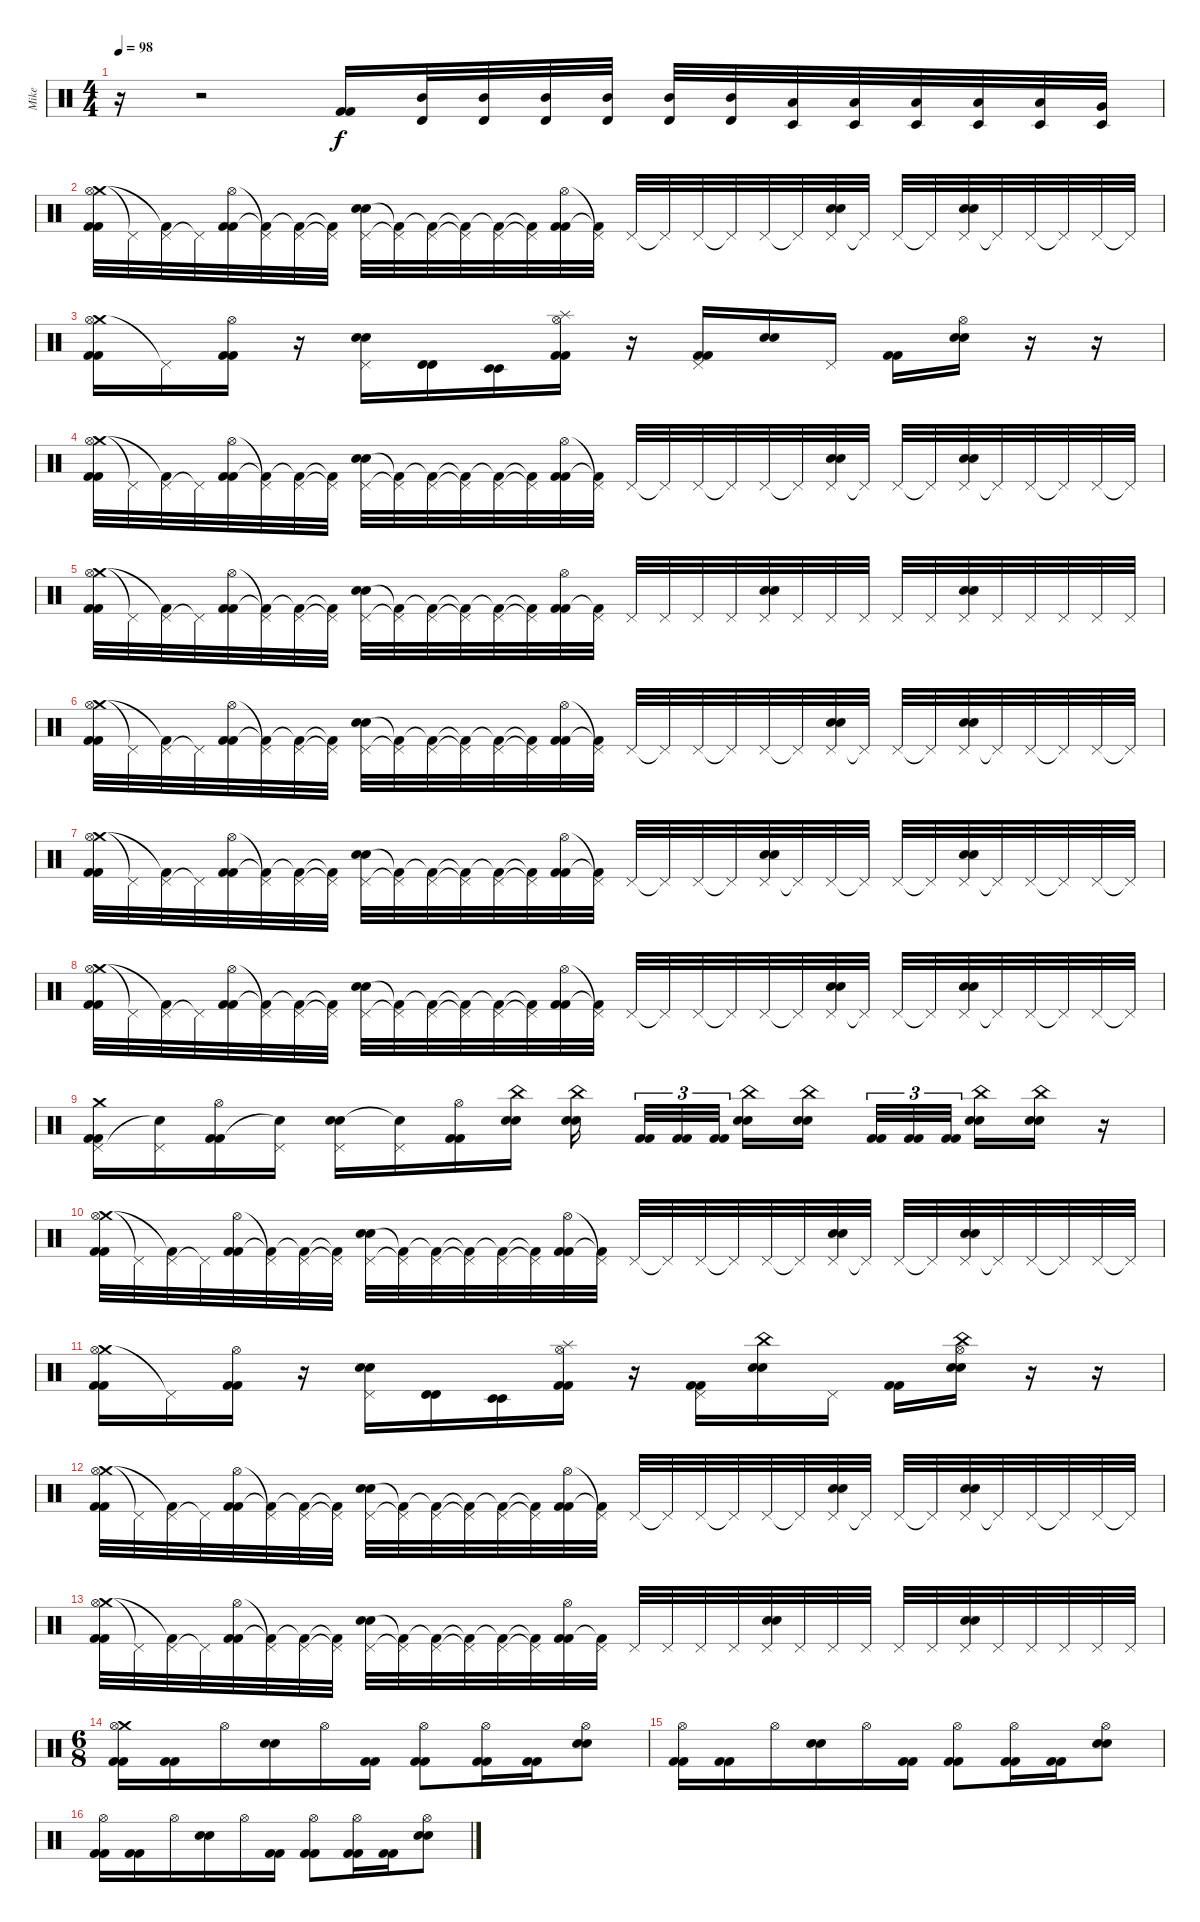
\track ("Mike" "Mike") {instrument percussion}
\staff {score}
\articulation defaults
\ts (4 4)
\tempo 98
\clef neutral
\ks c
r.16{dy f} r.2 ("Kick (hit) 2" "Kick (hit) 2").16 ("Mid Tom (hit)" "Timbale high (hit)").32 ("Mid Tom (hit)" "Timbale high (hit)").32 ("Mid Tom (hit)" "Timbale high (hit)").32 ("Mid Tom (hit)" "Timbale high (hit)").32 ("Mid Tom (hit)" "Timbale high (hit)").32 ("Mid Tom (hit)" "Timbale high (hit)").32 ("Low Tom (hit)" "Timbale low (hit)").32 ("Low Tom (hit)" "Timbale low (hit)").32 ("Low Tom (hit)" "Timbale low (hit)").32 ("Low Tom (hit)" "Timbale low (hit)").32 ("Low Tom (hit)" "Timbale low (hit)").32 ("Very Low Tom (hit)" "Timbale low (hit)").32 |
("Crash medium (hit)" "Hi-Hat (open)" "Kick (hit) 2" "Kick (hit) 2").32 "Pedal Hi-Hat (hit)"{t}.32 ("Pedal Hi-Hat (hit)" "Kick (hit) 2"{t}).32 "Pedal Hi-Hat (hit)"{t}.32 ("Hi-Hat (open)" "Kick (hit) 2" "Kick (hit) 2").32 ("Pedal Hi-Hat (hit)"{t} "Kick (hit) 2"{t}).32 ("Pedal Hi-Hat (hit)" "Kick (hit) 2"{t}).32 ("Pedal Hi-Hat (hit)"{t} "Kick (hit) 2"{t}).32 ("Pedal Hi-Hat (hit)" "Electric Snare (hit)" "Electric Snare (hit)").32 ("Pedal Hi-Hat (hit)"{t} "Kick (hit) 2"{t}).32 ("Pedal Hi-Hat (hit)" "Kick (hit) 2"{t}).32 ("Pedal Hi-Hat (hit)"{t} "Kick (hit) 2"{t}).32 ("Pedal Hi-Hat (hit)" "Kick (hit) 2"{t}).32 ("Pedal Hi-Hat (hit)"{t} "Kick (hit) 2"{t}).32 ("Hi-Hat (open)" "Kick (hit) 2" "Kick (hit) 2").32 ("Pedal Hi-Hat (hit)"{t} "Kick (hit) 2"{t}).32 "Pedal Hi-Hat (hit)".32 "Pedal Hi-Hat (hit)"{t}.32 "Pedal Hi-Hat (hit)".32 "Pedal Hi-Hat (hit)"{t}.32 "Pedal Hi-Hat (hit)".32 "Pedal Hi-Hat (hit)"{t}.32 ("Pedal Hi-Hat (hit)" "Electric Snare (hit)" "Electric Snare (hit)").32 "Pedal Hi-Hat (hit)"{t}.32 "Pedal Hi-Hat (hit)".32 "Pedal Hi-Hat (hit)"{t}.32 ("Pedal Hi-Hat (hit)" "Electric Snare (hit)" "Electric Snare (hit)").32 "Pedal Hi-Hat (hit)"{t}.32 "Pedal Hi-Hat (hit)".32 "Pedal Hi-Hat (hit)"{t}.32 "Pedal Hi-Hat (hit)".32 "Pedal Hi-Hat (hit)"{t}.32 |
("Crash medium (hit)" "Hi-Hat (open)" "Kick (hit) 2" "Kick (hit) 2").16 "Pedal Hi-Hat (hit)"{t}.16 ("Hi-Hat (open)" "Kick (hit) 2" "Kick (hit) 2").16 r.16 ("Pedal Hi-Hat (hit)" "Electric Snare (hit)" "Electric Snare (hit)").16 ("Timbale high (hit)" "Timbale high (hit)").16 ("Timbale low (hit)" "Timbale low (hit)").16 ("Splash (hit)" "Hi-Hat (open)" "Kick (hit) 2" "Kick (hit) 2").16 r.16 ("Pedal Hi-Hat (hit)" "Kick (hit) 2" "Kick (hit) 2").16 ("Electric Snare (hit)" "Electric Snare (hit)").16 "Pedal Hi-Hat (hit)".16 ("Kick (hit) 2" "Kick (hit) 2").16 ("Hi-Hat (open)" "Electric Snare (hit)" "Electric Snare (hit)").16 r.16 r.16 |
("Crash medium (hit)" "Hi-Hat (open)" "Kick (hit) 2" "Kick (hit) 2").32 "Pedal Hi-Hat (hit)"{t}.32 ("Pedal Hi-Hat (hit)" "Kick (hit) 2"{t}).32 "Pedal Hi-Hat (hit)"{t}.32 ("Hi-Hat (open)" "Kick (hit) 2" "Kick (hit) 2").32 ("Pedal Hi-Hat (hit)"{t} "Kick (hit) 2"{t}).32 ("Pedal Hi-Hat (hit)" "Kick (hit) 2"{t}).32 ("Pedal Hi-Hat (hit)"{t} "Kick (hit) 2"{t}).32 ("Pedal Hi-Hat (hit)" "Electric Snare (hit)" "Electric Snare (hit)").32 ("Pedal Hi-Hat (hit)"{t} "Kick (hit) 2"{t}).32 ("Pedal Hi-Hat (hit)" "Kick (hit) 2"{t}).32 ("Pedal Hi-Hat (hit)"{t} "Kick (hit) 2"{t}).32 ("Pedal Hi-Hat (hit)" "Kick (hit) 2"{t}).32 ("Pedal Hi-Hat (hit)"{t} "Kick (hit) 2"{t}).32 ("Hi-Hat (open)" "Kick (hit) 2" "Kick (hit) 2").32 ("Pedal Hi-Hat (hit)"{t} "Kick (hit) 2"{t}).32 "Pedal Hi-Hat (hit)".32 "Pedal Hi-Hat (hit)"{t}.32 "Pedal Hi-Hat (hit)".32 "Pedal Hi-Hat (hit)"{t}.32 "Pedal Hi-Hat (hit)".32 "Pedal Hi-Hat (hit)"{t}.32 ("Pedal Hi-Hat (hit)" "Electric Snare (hit)" "Electric Snare (hit)").32 "Pedal Hi-Hat (hit)"{t}.32 "Pedal Hi-Hat (hit)".32 "Pedal Hi-Hat (hit)"{t}.32 ("Pedal Hi-Hat (hit)" "Electric Snare (hit)" "Electric Snare (hit)").32 "Pedal Hi-Hat (hit)"{t}.32 "Pedal Hi-Hat (hit)".32 "Pedal Hi-Hat (hit)"{t}.32 "Pedal Hi-Hat (hit)".32 "Pedal Hi-Hat (hit)"{t}.32 |
("Crash medium (hit)" "Hi-Hat (open)" "Kick (hit) 2" "Kick (hit) 2").32 "Pedal Hi-Hat (hit)"{t}.32 ("Pedal Hi-Hat (hit)" "Kick (hit) 2"{t}).32 "Pedal Hi-Hat (hit)"{t}.32 ("Hi-Hat (open)" "Kick (hit) 2" "Kick (hit) 2").32 ("Pedal Hi-Hat (hit)"{t} "Kick (hit) 2"{t}).32 ("Pedal Hi-Hat (hit)" "Kick (hit) 2"{t}).32 ("Pedal Hi-Hat (hit)"{t} "Kick (hit) 2"{t}).32 ("Pedal Hi-Hat (hit)" "Electric Snare (hit)" "Electric Snare (hit)").32 ("Pedal Hi-Hat (hit)"{t} "Kick (hit) 2"{t}).32 ("Pedal Hi-Hat (hit)" "Kick (hit) 2"{t}).32 ("Pedal Hi-Hat (hit)"{t} "Kick (hit) 2"{t}).32 ("Pedal Hi-Hat (hit)" "Kick (hit) 2"{t}).32 ("Pedal Hi-Hat (hit)"{t} "Kick (hit) 2"{t}).32 ("Hi-Hat (open)" "Kick (hit) 2" "Kick (hit) 2").32 ("Pedal Hi-Hat (hit)" "Kick (hit) 2"{t}).32 "Pedal Hi-Hat (hit)".32 "Pedal Hi-Hat (hit)".32 "Pedal Hi-Hat (hit)".32 "Pedal Hi-Hat (hit)".32 ("Pedal Hi-Hat (hit)" "Electric Snare (hit)" "Electric Snare (hit)").32 "Pedal Hi-Hat (hit)".32 "Pedal Hi-Hat (hit)".32 "Pedal Hi-Hat (hit)".32 "Pedal Hi-Hat (hit)".32 "Pedal Hi-Hat (hit)".32 ("Pedal Hi-Hat (hit)" "Electric Snare (hit)" "Electric Snare (hit)").32 "Pedal Hi-Hat (hit)".32 "Pedal Hi-Hat (hit)".32 "Pedal Hi-Hat (hit)".32 "Pedal Hi-Hat (hit)".32 "Pedal Hi-Hat (hit)".32 |
("Crash medium (hit)" "Hi-Hat (open)" "Kick (hit) 2" "Kick (hit) 2").32 "Pedal Hi-Hat (hit)"{t}.32 ("Pedal Hi-Hat (hit)" "Kick (hit) 2"{t}).32 "Pedal Hi-Hat (hit)"{t}.32 ("Hi-Hat (open)" "Kick (hit) 2" "Kick (hit) 2").32 ("Pedal Hi-Hat (hit)"{t} "Kick (hit) 2"{t}).32 ("Pedal Hi-Hat (hit)" "Kick (hit) 2"{t}).32 ("Pedal Hi-Hat (hit)"{t} "Kick (hit) 2"{t}).32 ("Pedal Hi-Hat (hit)" "Electric Snare (hit)" "Electric Snare (hit)").32 ("Pedal Hi-Hat (hit)"{t} "Kick (hit) 2"{t}).32 ("Pedal Hi-Hat (hit)" "Kick (hit) 2"{t}).32 ("Pedal Hi-Hat (hit)"{t} "Kick (hit) 2"{t}).32 ("Pedal Hi-Hat (hit)" "Kick (hit) 2"{t}).32 ("Pedal Hi-Hat (hit)"{t} "Kick (hit) 2"{t}).32 ("Hi-Hat (open)" "Kick (hit) 2" "Kick (hit) 2").32 ("Pedal Hi-Hat (hit)"{t} "Kick (hit) 2"{t}).32 "Pedal Hi-Hat (hit)".32 "Pedal Hi-Hat (hit)"{t}.32 "Pedal Hi-Hat (hit)".32 "Pedal Hi-Hat (hit)"{t}.32 "Pedal Hi-Hat (hit)".32 "Pedal Hi-Hat (hit)"{t}.32 ("Pedal Hi-Hat (hit)" "Electric Snare (hit)" "Electric Snare (hit)").32 "Pedal Hi-Hat (hit)"{t}.32 "Pedal Hi-Hat (hit)".32 "Pedal Hi-Hat (hit)"{t}.32 ("Pedal Hi-Hat (hit)" "Electric Snare (hit)" "Electric Snare (hit)").32 "Pedal Hi-Hat (hit)"{t}.32 "Pedal Hi-Hat (hit)".32 "Pedal Hi-Hat (hit)"{t}.32 "Pedal Hi-Hat (hit)".32 "Pedal Hi-Hat (hit)"{t}.32 |
("Crash medium (hit)" "Hi-Hat (open)" "Kick (hit) 2" "Kick (hit) 2").32 "Pedal Hi-Hat (hit)"{t}.32 ("Pedal Hi-Hat (hit)" "Kick (hit) 2"{t}).32 "Pedal Hi-Hat (hit)"{t}.32 ("Hi-Hat (open)" "Kick (hit) 2" "Kick (hit) 2").32 ("Pedal Hi-Hat (hit)"{t} "Kick (hit) 2"{t}).32 ("Pedal Hi-Hat (hit)" "Kick (hit) 2"{t}).32 ("Pedal Hi-Hat (hit)"{t} "Kick (hit) 2"{t}).32 ("Pedal Hi-Hat (hit)" "Electric Snare (hit)" "Electric Snare (hit)").32 ("Pedal Hi-Hat (hit)"{t} "Kick (hit) 2"{t}).32 ("Pedal Hi-Hat (hit)" "Kick (hit) 2"{t}).32 ("Pedal Hi-Hat (hit)"{t} "Kick (hit) 2"{t}).32 ("Pedal Hi-Hat (hit)" "Kick (hit) 2"{t}).32 ("Pedal Hi-Hat (hit)"{t} "Kick (hit) 2"{t}).32 ("Hi-Hat (open)" "Kick (hit) 2" "Kick (hit) 2").32 ("Pedal Hi-Hat (hit)"{t} "Kick (hit) 2"{t}).32 "Pedal Hi-Hat (hit)".32 "Pedal Hi-Hat (hit)"{t}.32 "Pedal Hi-Hat (hit)".32 "Pedal Hi-Hat (hit)"{t}.32 ("Pedal Hi-Hat (hit)" "Electric Snare (hit)" "Electric Snare (hit)").32 "Pedal Hi-Hat (hit)"{t}.32 "Pedal Hi-Hat (hit)".32 "Pedal Hi-Hat (hit)"{t}.32 "Pedal Hi-Hat (hit)".32 "Pedal Hi-Hat (hit)"{t}.32 ("Pedal Hi-Hat (hit)" "Electric Snare (hit)" "Electric Snare (hit)").32 "Pedal Hi-Hat (hit)"{t}.32 "Pedal Hi-Hat (hit)".32 "Pedal Hi-Hat (hit)"{t}.32 "Pedal Hi-Hat (hit)".32 "Pedal Hi-Hat (hit)"{t}.32 |
("Crash medium (hit)" "Hi-Hat (open)" "Kick (hit) 2" "Kick (hit) 2").32 "Pedal Hi-Hat (hit)"{t}.32 ("Pedal Hi-Hat (hit)" "Kick (hit) 2"{t}).32 "Pedal Hi-Hat (hit)"{t}.32 ("Hi-Hat (open)" "Kick (hit) 2" "Kick (hit) 2").32 ("Pedal Hi-Hat (hit)"{t} "Kick (hit) 2"{t}).32 ("Pedal Hi-Hat (hit)" "Kick (hit) 2"{t}).32 ("Pedal Hi-Hat (hit)"{t} "Kick (hit) 2"{t}).32 ("Pedal Hi-Hat (hit)" "Electric Snare (hit)" "Electric Snare (hit)").32 ("Pedal Hi-Hat (hit)"{t} "Kick (hit) 2"{t}).32 ("Pedal Hi-Hat (hit)" "Kick (hit) 2"{t}).32 ("Pedal Hi-Hat (hit)"{t} "Kick (hit) 2"{t}).32 ("Pedal Hi-Hat (hit)" "Kick (hit) 2"{t}).32 ("Pedal Hi-Hat (hit)"{t} "Kick (hit) 2"{t}).32 ("Hi-Hat (open)" "Kick (hit) 2" "Kick (hit) 2").32 ("Pedal Hi-Hat (hit)"{t} "Kick (hit) 2"{t}).32 "Pedal Hi-Hat (hit)".32 "Pedal Hi-Hat (hit)"{t}.32 "Pedal Hi-Hat (hit)".32 "Pedal Hi-Hat (hit)"{t}.32 "Pedal Hi-Hat (hit)".32 "Pedal Hi-Hat (hit)"{t}.32 ("Pedal Hi-Hat (hit)" "Electric Snare (hit)" "Electric Snare (hit)").32 "Pedal Hi-Hat (hit)"{t}.32 "Pedal Hi-Hat (hit)".32 "Pedal Hi-Hat (hit)"{t}.32 ("Pedal Hi-Hat (hit)" "Electric Snare (hit)" "Electric Snare (hit)").32 "Pedal Hi-Hat (hit)"{t}.32 "Pedal Hi-Hat (hit)".32 "Pedal Hi-Hat (hit)"{t}.32 "Pedal Hi-Hat (hit)".32 "Pedal Hi-Hat (hit)"{t}.32 |
("Crash medium (hit)" "Pedal Hi-Hat (hit)" "Kick (hit) 2" "Kick (hit) 2").16 ("Pedal Hi-Hat (hit)" "Snare (hit)"{t}).16 ("Hi-Hat (open)" "Kick (hit) 2" "Kick (hit) 2").16 ("Pedal Hi-Hat (hit)" "Snare (hit)"{t}).16 ("Pedal Hi-Hat (hit)" "Electric Snare (hit)" "Electric Snare (hit)").16 ("Pedal Hi-Hat (hit)" "Snare (hit)"{t}).16 ("Hi-Hat (open)" "Kick (hit) 2" "Kick (hit) 2").16 ("China (hit)" "Electric Snare (hit)" "Electric Snare (hit)").16 ("China (hit)" "Electric Snare (hit)" "Electric Snare (hit)").16 ("Kick (hit) 2" "Kick (hit) 2").32{tu (3 2)} ("Kick (hit) 2" "Kick (hit) 2").32{tu (3 2)} ("Kick (hit) 2" "Kick (hit) 2").32{tu (3 2)} ("China (hit)" "Electric Snare (hit)" "Electric Snare (hit)").16 ("China (hit)" "Electric Snare (hit)" "Electric Snare (hit)").16 ("Kick (hit) 2" "Kick (hit) 2").32{tu (3 2)} ("Kick (hit) 2" "Kick (hit) 2").32{tu (3 2)} ("Kick (hit) 2" "Kick (hit) 2").32{tu (3 2)} ("China (hit)" "Electric Snare (hit)" "Electric Snare (hit)").16 ("China (hit)" "Electric Snare (hit)" "Electric Snare (hit)").16 r.16 |
("Crash medium (hit)" "Hi-Hat (open)" "Kick (hit) 2" "Kick (hit) 2").32 "Pedal Hi-Hat (hit)"{t}.32 ("Pedal Hi-Hat (hit)" "Kick (hit) 2"{t}).32 "Pedal Hi-Hat (hit)"{t}.32 ("Hi-Hat (open)" "Kick (hit) 2" "Kick (hit) 2").32 ("Pedal Hi-Hat (hit)"{t} "Kick (hit) 2"{t}).32 ("Pedal Hi-Hat (hit)" "Kick (hit) 2"{t}).32 ("Pedal Hi-Hat (hit)"{t} "Kick (hit) 2"{t}).32 ("Pedal Hi-Hat (hit)" "Electric Snare (hit)" "Electric Snare (hit)").32 ("Pedal Hi-Hat (hit)"{t} "Kick (hit) 2"{t}).32 ("Pedal Hi-Hat (hit)" "Kick (hit) 2"{t}).32 ("Pedal Hi-Hat (hit)"{t} "Kick (hit) 2"{t}).32 ("Pedal Hi-Hat (hit)" "Kick (hit) 2"{t}).32 ("Pedal Hi-Hat (hit)"{t} "Kick (hit) 2"{t}).32 ("Hi-Hat (open)" "Kick (hit) 2" "Kick (hit) 2").32 ("Pedal Hi-Hat (hit)"{t} "Kick (hit) 2"{t}).32 "Pedal Hi-Hat (hit)".32 "Pedal Hi-Hat (hit)"{t}.32 "Pedal Hi-Hat (hit)".32 "Pedal Hi-Hat (hit)"{t}.32 "Pedal Hi-Hat (hit)".32 "Pedal Hi-Hat (hit)"{t}.32 ("Pedal Hi-Hat (hit)" "Electric Snare (hit)" "Electric Snare (hit)").32 "Pedal Hi-Hat (hit)"{t}.32 "Pedal Hi-Hat (hit)".32 "Pedal Hi-Hat (hit)"{t}.32 ("Pedal Hi-Hat (hit)" "Electric Snare (hit)" "Electric Snare (hit)").32 "Pedal Hi-Hat (hit)"{t}.32 "Pedal Hi-Hat (hit)".32 "Pedal Hi-Hat (hit)"{t}.32 "Pedal Hi-Hat (hit)".32 "Pedal Hi-Hat (hit)"{t}.32 |
("Crash medium (hit)" "Hi-Hat (open)" "Kick (hit) 2" "Kick (hit) 2").16 "Pedal Hi-Hat (hit)"{t}.16 ("Hi-Hat (open)" "Kick (hit) 2" "Kick (hit) 2").16 r.16 ("Pedal Hi-Hat (hit)" "Electric Snare (hit)" "Electric Snare (hit)").16 ("Timbale high (hit)" "Timbale high (hit)").16 ("Timbale low (hit)" "Timbale low (hit)").16 ("Splash (hit)" "Hi-Hat (open)" "Kick (hit) 2" "Kick (hit) 2").16 r.16 ("Pedal Hi-Hat (hit)" "Kick (hit) 2" "Kick (hit) 2").16 ("China (hit)" "Electric Snare (hit)" "Electric Snare (hit)").16 "Pedal Hi-Hat (hit)".16 ("Kick (hit) 2" "Kick (hit) 2").16 ("China (hit)" "Hi-Hat (open)" "Electric Snare (hit)" "Electric Snare (hit)").16 r.16 r.16 |
("Crash medium (hit)" "Hi-Hat (open)" "Kick (hit) 2" "Kick (hit) 2").32 "Pedal Hi-Hat (hit)"{t}.32 ("Pedal Hi-Hat (hit)" "Kick (hit) 2"{t}).32 "Pedal Hi-Hat (hit)"{t}.32 ("Hi-Hat (open)" "Kick (hit) 2" "Kick (hit) 2").32 ("Pedal Hi-Hat (hit)"{t} "Kick (hit) 2"{t}).32 ("Pedal Hi-Hat (hit)" "Kick (hit) 2"{t}).32 ("Pedal Hi-Hat (hit)"{t} "Kick (hit) 2"{t}).32 ("Pedal Hi-Hat (hit)" "Electric Snare (hit)" "Electric Snare (hit)").32 ("Pedal Hi-Hat (hit)"{t} "Kick (hit) 2"{t}).32 ("Pedal Hi-Hat (hit)" "Kick (hit) 2"{t}).32 ("Pedal Hi-Hat (hit)"{t} "Kick (hit) 2"{t}).32 ("Pedal Hi-Hat (hit)" "Kick (hit) 2"{t}).32 ("Pedal Hi-Hat (hit)"{t} "Kick (hit) 2"{t}).32 ("Hi-Hat (open)" "Kick (hit) 2" "Kick (hit) 2").32 ("Pedal Hi-Hat (hit)"{t} "Kick (hit) 2"{t}).32 "Pedal Hi-Hat (hit)".32 "Pedal Hi-Hat (hit)"{t}.32 "Pedal Hi-Hat (hit)".32 "Pedal Hi-Hat (hit)"{t}.32 "Pedal Hi-Hat (hit)".32 "Pedal Hi-Hat (hit)"{t}.32 ("Pedal Hi-Hat (hit)" "Electric Snare (hit)" "Electric Snare (hit)").32 "Pedal Hi-Hat (hit)"{t}.32 "Pedal Hi-Hat (hit)".32 "Pedal Hi-Hat (hit)"{t}.32 ("Pedal Hi-Hat (hit)" "Electric Snare (hit)" "Electric Snare (hit)").32 "Pedal Hi-Hat (hit)"{t}.32 "Pedal Hi-Hat (hit)".32 "Pedal Hi-Hat (hit)"{t}.32 "Pedal Hi-Hat (hit)".32 "Pedal Hi-Hat (hit)"{t}.32 |
("Crash medium (hit)" "Hi-Hat (open)" "Kick (hit) 2" "Kick (hit) 2").32 "Pedal Hi-Hat (hit)"{t}.32 ("Pedal Hi-Hat (hit)" "Kick (hit) 2"{t}).32 "Pedal Hi-Hat (hit)"{t}.32 ("Hi-Hat (open)" "Kick (hit) 2" "Kick (hit) 2").32 ("Pedal Hi-Hat (hit)"{t} "Kick (hit) 2"{t}).32 ("Pedal Hi-Hat (hit)" "Kick (hit) 2"{t}).32 ("Pedal Hi-Hat (hit)"{t} "Kick (hit) 2"{t}).32 ("Pedal Hi-Hat (hit)" "Electric Snare (hit)" "Electric Snare (hit)").32 ("Pedal Hi-Hat (hit)"{t} "Kick (hit) 2"{t}).32 ("Pedal Hi-Hat (hit)" "Kick (hit) 2"{t}).32 ("Pedal Hi-Hat (hit)"{t} "Kick (hit) 2"{t}).32 ("Pedal Hi-Hat (hit)" "Kick (hit) 2"{t}).32 ("Pedal Hi-Hat (hit)"{t} "Kick (hit) 2"{t}).32 ("Hi-Hat (open)" "Kick (hit) 2" "Kick (hit) 2").32 ("Pedal Hi-Hat (hit)" "Kick (hit) 2"{t}).32 "Pedal Hi-Hat (hit)".32 "Pedal Hi-Hat (hit)".32 "Pedal Hi-Hat (hit)".32 "Pedal Hi-Hat (hit)".32 ("Pedal Hi-Hat (hit)" "Electric Snare (hit)" "Electric Snare (hit)").32 "Pedal Hi-Hat (hit)".32 "Pedal Hi-Hat (hit)".32 "Pedal Hi-Hat (hit)".32 "Pedal Hi-Hat (hit)".32 "Pedal Hi-Hat (hit)".32 ("Pedal Hi-Hat (hit)" "Electric Snare (hit)" "Electric Snare (hit)").32 "Pedal Hi-Hat (hit)".32 "Pedal Hi-Hat (hit)".32 "Pedal Hi-Hat (hit)".32 "Pedal Hi-Hat (hit)".32 "Pedal Hi-Hat (hit)".32 |
\ts (6 8)
("Crash medium (hit)" "Hi-Hat (open)" "Kick (hit) 2" "Kick (hit) 2").16 ("Kick (hit) 2" "Kick (hit) 2").16 "Hi-Hat (open)".16 ("Electric Snare (hit)" "Electric Snare (hit)").16 "Hi-Hat (open)".16 ("Kick (hit) 2" "Kick (hit) 2").16 ("Hi-Hat (open)" "Kick (hit) 2" "Kick (hit) 2").8 ("Hi-Hat (open)" "Kick (hit) 2" "Kick (hit) 2").16 ("Kick (hit) 2" "Kick (hit) 2").16 ("Hi-Hat (open)" "Electric Snare (hit)" "Electric Snare (hit)").8 |
("Hi-Hat (open)" "Kick (hit) 2" "Kick (hit) 2").16 ("Kick (hit) 2" "Kick (hit) 2").16 "Hi-Hat (open)".16 ("Electric Snare (hit)" "Electric Snare (hit)").16 "Hi-Hat (open)".16 ("Kick (hit) 2" "Kick (hit) 2").16 ("Hi-Hat (open)" "Kick (hit) 2" "Kick (hit) 2").8 ("Hi-Hat (open)" "Kick (hit) 2" "Kick (hit) 2").16 ("Kick (hit) 2" "Kick (hit) 2").16 ("Hi-Hat (open)" "Electric Snare (hit)" "Electric Snare (hit)").8 |
("Hi-Hat (open)" "Kick (hit) 2" "Kick (hit) 2").16 ("Kick (hit) 2" "Kick (hit) 2").16 "Hi-Hat (open)".16 ("Electric Snare (hit)" "Electric Snare (hit)").16 "Hi-Hat (open)".16 ("Kick (hit) 2" "Kick (hit) 2").16 ("Hi-Hat (open)" "Kick (hit) 2" "Kick (hit) 2").8 ("Hi-Hat (open)" "Kick (hit) 2" "Kick (hit) 2").16 ("Kick (hit) 2" "Kick (hit) 2").16 ("Hi-Hat (open)" "Electric Snare (hit)" "Electric Snare (hit)").8
